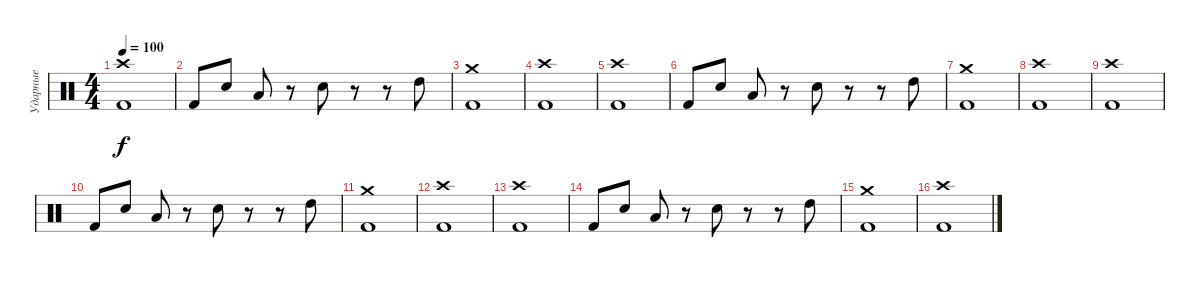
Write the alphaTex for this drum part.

\track ("Ударные" "Ударные") {instrument percussion}
\staff {score}
\articulation defaults
\ts (4 4)
\tempo 100
\clef neutral
\ks c
("Kick (hit) 2" "Crash high (hit)").1{dy f} |
"Kick (hit) 2".8 "Electric Snare (hit)".8 "Low Tom (hit)".8 r.8 "Electric Snare (hit)".8 r.8 r.8 "High Tom (hit)".8 |
("Kick (hit) 2" "Crash medium (hit)").1 |
("Kick (hit) 2" "Crash high (hit)").1 |
("Kick (hit) 2" "Crash high (hit)").1 |
"Kick (hit) 2".8 "Electric Snare (hit)".8 "Low Tom (hit)".8 r.8 "Electric Snare (hit)".8 r.8 r.8 "High Tom (hit)".8 |
("Kick (hit) 2" "Crash medium (hit)").1 |
("Kick (hit) 2" "Crash high (hit)").1 |
("Kick (hit) 2" "Crash high (hit)").1 |
"Kick (hit) 2".8 "Electric Snare (hit)".8 "Low Tom (hit)".8 r.8 "Electric Snare (hit)".8 r.8 r.8 "High Tom (hit)".8 |
("Kick (hit) 2" "Crash medium (hit)").1 |
("Kick (hit) 2" "Crash high (hit)").1 |
("Kick (hit) 2" "Crash high (hit)").1 |
"Kick (hit) 2".8 "Electric Snare (hit)".8 "Low Tom (hit)".8 r.8 "Electric Snare (hit)".8 r.8 r.8 "High Tom (hit)".8 |
("Kick (hit) 2" "Crash medium (hit)").1 |
("Kick (hit) 2" "Crash high (hit)").1
